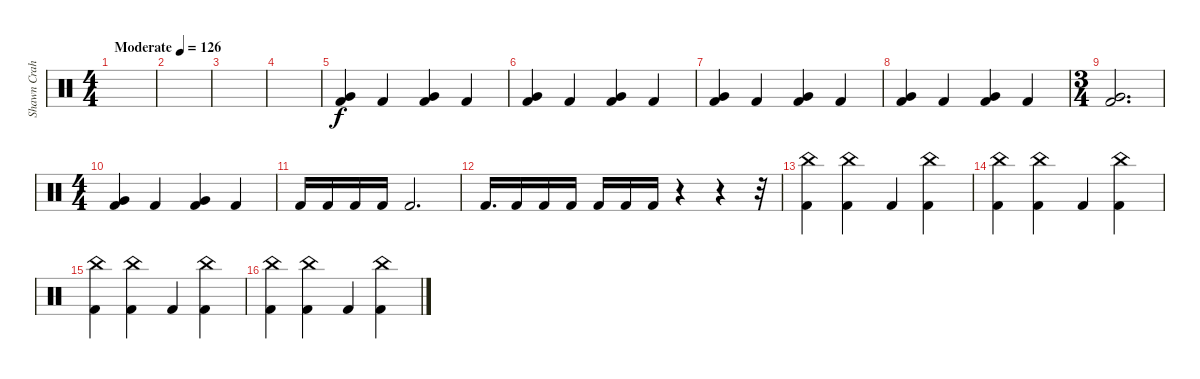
\track ("Shawn Crahan" "Shawn Crah") {instrument percussion}
\staff {score}
\articulation defaults
\ts (4 4)
\tempo (126 "Moderate")
\clef neutral
\ks c
|
|
|
|
("Kick (hit) 2" "Very Low Tom (hit)").4 "Kick (hit) 2".4 ("Kick (hit) 2" "Very Low Tom (hit)").4 "Kick (hit) 2".4 |
("Kick (hit) 2" "Very Low Tom (hit)").4 "Kick (hit) 2".4 ("Kick (hit) 2" "Very Low Tom (hit)").4 "Kick (hit) 2".4 |
("Kick (hit) 2" "Very Low Tom (hit)").4 "Kick (hit) 2".4 ("Kick (hit) 2" "Very Low Tom (hit)").4 "Kick (hit) 2".4 |
("Kick (hit) 2" "Very Low Tom (hit)").4 "Kick (hit) 2".4 ("Kick (hit) 2" "Very Low Tom (hit)").4 "Kick (hit) 2".4 |
\ts (3 4)
("Kick (hit) 2" "Very Low Tom (hit)").2{d} |
\ts (4 4)
("Kick (hit) 2" "Very Low Tom (hit)").4 "Kick (hit) 2".4 ("Kick (hit) 2" "Very Low Tom (hit)").4 "Kick (hit) 2".4 |
"Kick (hit) 2".16 "Kick (hit) 2".16 "Kick (hit) 2".16 "Kick (hit) 2".16 "Kick (hit) 2".2{d} |
"Kick (hit) 2".16{d} "Kick (hit) 2".16 "Kick (hit) 2".16 "Kick (hit) 2".16 "Kick (hit) 2".16 "Kick (hit) 2".16 "Kick (hit) 2".16 r.4 r.4 r.32 |
("China (hit)" "Kick (hit) 2").4 ("China (hit)" "Kick (hit) 2").4 "Kick (hit) 2".4 ("China (hit)" "Kick (hit) 2").4 |
("China (hit)" "Kick (hit) 2").4 ("China (hit)" "Kick (hit) 2").4 "Kick (hit) 2".4 ("China (hit)" "Kick (hit) 2").4 |
("China (hit)" "Kick (hit) 2").4 ("China (hit)" "Kick (hit) 2").4 "Kick (hit) 2".4 ("China (hit)" "Kick (hit) 2").4 |
("China (hit)" "Kick (hit) 2").4 ("China (hit)" "Kick (hit) 2").4 "Kick (hit) 2".4 ("China (hit)" "Kick (hit) 2").4
